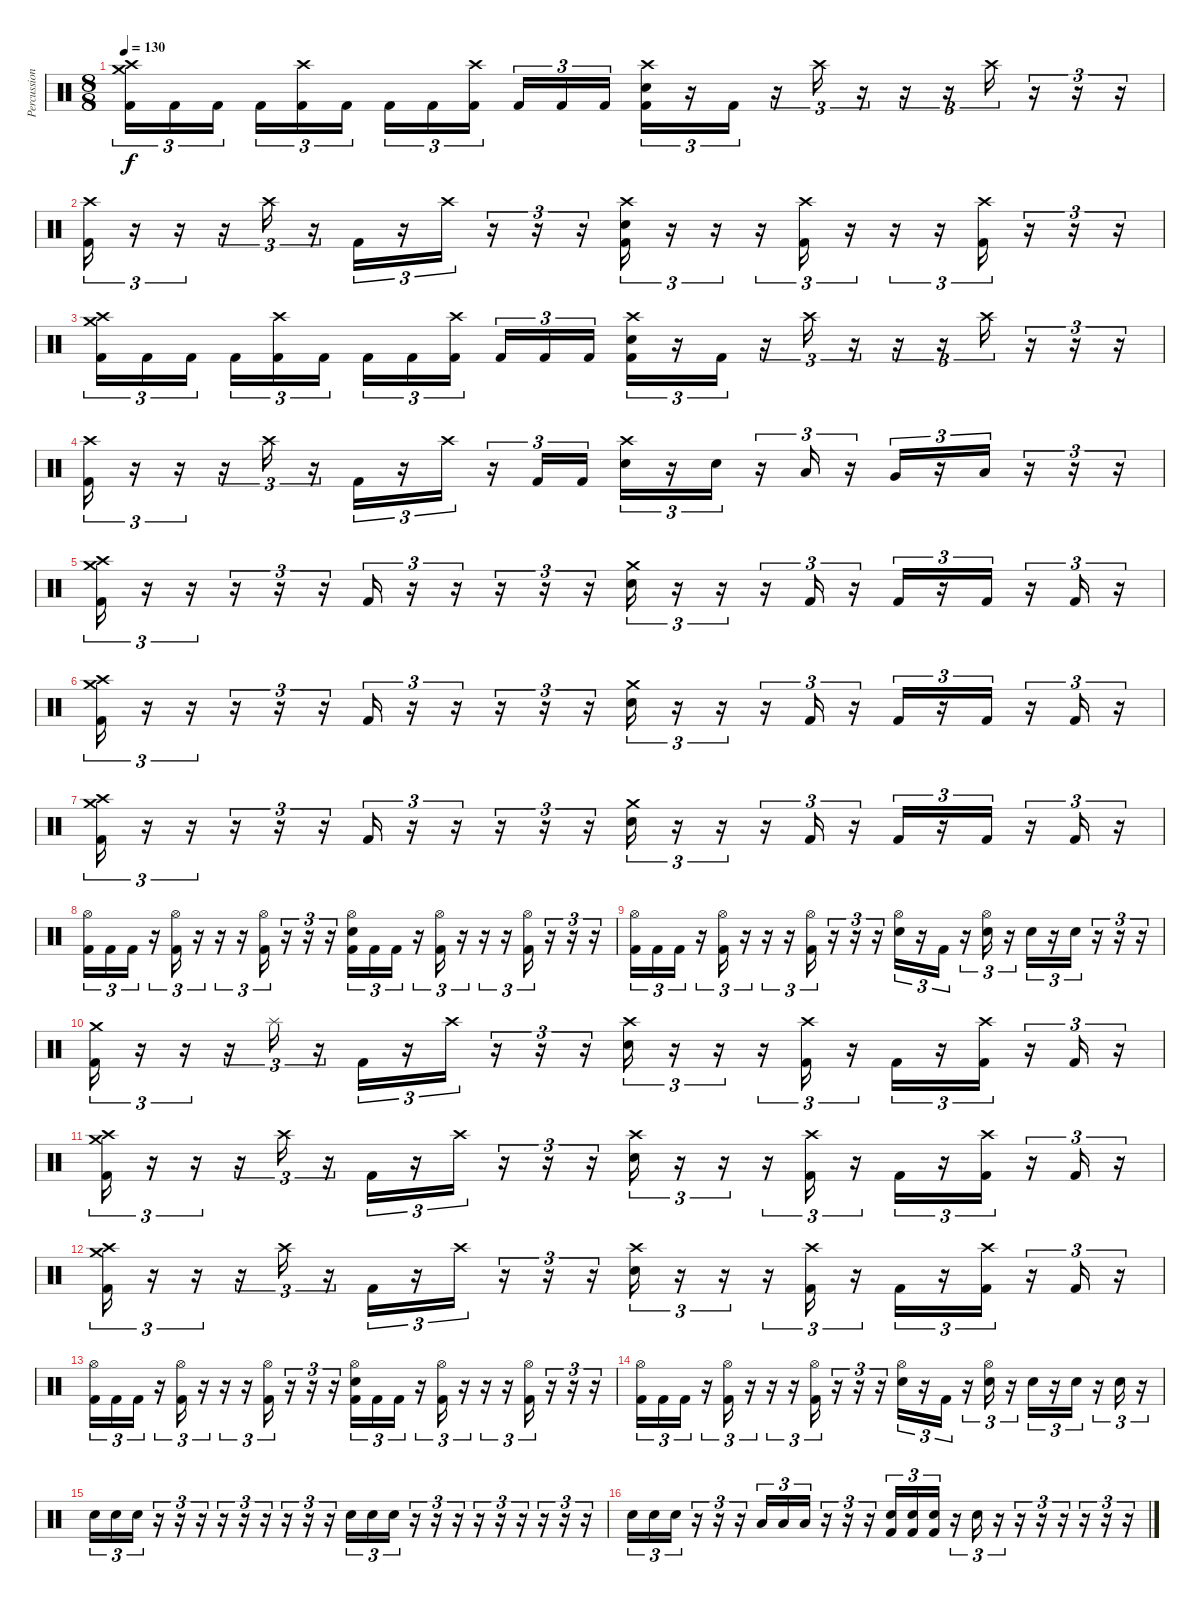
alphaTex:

\track ("Percussion" "Percussion") {instrument percussion}
\staff {score}
\articulation defaults
\ts (8 8)
\tempo 130
\clef neutral
\ks c
("Crash high (hit)" "Crash medium (hit)" "Kick (hit) 2").16{tu (3 2) dy f} "Kick (hit) 2".16{tu (3 2)} "Kick (hit) 2".16{tu (3 2)} "Kick (hit) 2".16{tu (3 2)} ("Crash high (hit)" "Kick (hit) 2").16{tu (3 2)} "Kick (hit) 2".16{tu (3 2)} "Kick (hit) 2".16{tu (3 2)} "Kick (hit) 2".16{tu (3 2)} ("Crash high (hit)" "Kick (hit) 2").16{tu (3 2)} "Kick (hit) 2".16{tu (3 2)} "Kick (hit) 2".16{tu (3 2)} "Kick (hit) 2".16{tu (3 2)} ("Crash high (hit)" "Snare (hit) 2" "Kick (hit) 2").16{tu (3 2)} r.16{tu (3 2)} "Kick (hit) 2".16{tu (3 2)} r.16{tu (3 2)} "Crash high (hit)".16{tu (3 2)} r.16{tu (3 2)} r.16{tu (3 2)} r.16{tu (3 2)} "Crash high (hit)".16{tu (3 2)} r.16{tu (3 2)} r.16{tu (3 2)} r.16{tu (3 2)} |
("Crash high (hit)" "Kick (hit) 2").16{tu (3 2)} r.16{tu (3 2)} r.16{tu (3 2)} r.16{tu (3 2)} "Crash high (hit)".16{tu (3 2)} r.16{tu (3 2)} "Kick (hit) 2".16{tu (3 2)} r.16{tu (3 2)} "Crash high (hit)".16{tu (3 2)} r.16{tu (3 2)} r.16{tu (3 2)} r.16{tu (3 2)} ("Crash high (hit)" "Snare (hit) 2" "Kick (hit) 2").16{tu (3 2)} r.16{tu (3 2)} r.16{tu (3 2)} r.16{tu (3 2)} ("Crash high (hit)" "Kick (hit) 2").16{tu (3 2)} r.16{tu (3 2)} r.16{tu (3 2)} r.16{tu (3 2)} ("Crash high (hit)" "Kick (hit) 2").16{tu (3 2)} r.16{tu (3 2)} r.16{tu (3 2)} r.16{tu (3 2)} |
("Crash high (hit)" "Crash medium (hit)" "Kick (hit) 2").16{tu (3 2)} "Kick (hit) 2".16{tu (3 2)} "Kick (hit) 2".16{tu (3 2)} "Kick (hit) 2".16{tu (3 2)} ("Crash high (hit)" "Kick (hit) 2").16{tu (3 2)} "Kick (hit) 2".16{tu (3 2)} "Kick (hit) 2".16{tu (3 2)} "Kick (hit) 2".16{tu (3 2)} ("Crash high (hit)" "Kick (hit) 2").16{tu (3 2)} "Kick (hit) 2".16{tu (3 2)} "Kick (hit) 2".16{tu (3 2)} "Kick (hit) 2".16{tu (3 2)} ("Crash high (hit)" "Snare (hit) 2" "Kick (hit) 2").16{tu (3 2)} r.16{tu (3 2)} "Kick (hit) 2".16{tu (3 2)} r.16{tu (3 2)} "Crash high (hit)".16{tu (3 2)} r.16{tu (3 2)} r.16{tu (3 2)} r.16{tu (3 2)} "Crash high (hit)".16{tu (3 2)} r.16{tu (3 2)} r.16{tu (3 2)} r.16{tu (3 2)} |
("Crash high (hit)" "Kick (hit) 2").16{tu (3 2)} r.16{tu (3 2)} r.16{tu (3 2)} r.16{tu (3 2)} "Crash high (hit)".16{tu (3 2)} r.16{tu (3 2)} "Kick (hit) 2".16{tu (3 2)} r.16{tu (3 2)} "Crash high (hit)".16{tu (3 2)} r.16{tu (3 2)} "Kick (hit) 2".16{tu (3 2)} "Kick (hit) 2".16{tu (3 2)} ("Crash high (hit)" "Snare (hit) 2").16{tu (3 2)} r.16{tu (3 2)} "Snare (hit) 2".16{tu (3 2)} r.16{tu (3 2)} "Low Tom (hit)".16{tu (3 2)} r.16{tu (3 2)} "Very Low Tom (hit)".16{tu (3 2)} r.16{tu (3 2)} "Low Floor Tom (hit)".16{tu (3 2)} r.16{tu (3 2)} r.16{tu (3 2)} r.16{tu (3 2)} |
("Crash high (hit)" "Crash medium (hit)" "Kick (hit) 2").16{tu (3 2)} r.16{tu (3 2)} r.16{tu (3 2)} r.16{tu (3 2)} r.16{tu (3 2)} r.16{tu (3 2)} "Kick (hit) 2".16{tu (3 2)} r.16{tu (3 2)} r.16{tu (3 2)} r.16{tu (3 2)} r.16{tu (3 2)} r.16{tu (3 2)} ("Crash medium (hit)" "Snare (hit) 2").16{tu (3 2)} r.16{tu (3 2)} r.16{tu (3 2)} r.16{tu (3 2)} "Kick (hit) 2".16{tu (3 2)} r.16{tu (3 2)} "Kick (hit) 2".16{tu (3 2)} r.16{tu (3 2)} "Kick (hit) 2".16{tu (3 2)} r.16{tu (3 2)} "Kick (hit) 2".16{tu (3 2)} r.16{tu (3 2)} |
("Crash high (hit)" "Crash medium (hit)" "Kick (hit) 2").16{tu (3 2)} r.16{tu (3 2)} r.16{tu (3 2)} r.16{tu (3 2)} r.16{tu (3 2)} r.16{tu (3 2)} "Kick (hit) 2".16{tu (3 2)} r.16{tu (3 2)} r.16{tu (3 2)} r.16{tu (3 2)} r.16{tu (3 2)} r.16{tu (3 2)} ("Crash medium (hit)" "Snare (hit) 2").16{tu (3 2)} r.16{tu (3 2)} r.16{tu (3 2)} r.16{tu (3 2)} "Kick (hit) 2".16{tu (3 2)} r.16{tu (3 2)} "Kick (hit) 2".16{tu (3 2)} r.16{tu (3 2)} "Kick (hit) 2".16{tu (3 2)} r.16{tu (3 2)} "Kick (hit) 2".16{tu (3 2)} r.16{tu (3 2)} |
("Crash high (hit)" "Crash medium (hit)" "Kick (hit) 2").16{tu (3 2)} r.16{tu (3 2)} r.16{tu (3 2)} r.16{tu (3 2)} r.16{tu (3 2)} r.16{tu (3 2)} "Kick (hit) 2".16{tu (3 2)} r.16{tu (3 2)} r.16{tu (3 2)} r.16{tu (3 2)} r.16{tu (3 2)} r.16{tu (3 2)} ("Crash medium (hit)" "Snare (hit) 2").16{tu (3 2)} r.16{tu (3 2)} r.16{tu (3 2)} r.16{tu (3 2)} "Kick (hit) 2".16{tu (3 2)} r.16{tu (3 2)} "Kick (hit) 2".16{tu (3 2)} r.16{tu (3 2)} "Kick (hit) 2".16{tu (3 2)} r.16{tu (3 2)} "Kick (hit) 2".16{tu (3 2)} r.16{tu (3 2)} |
("Hi-Hat (open)" "Kick (hit) 2").16{tu (3 2)} "Kick (hit) 2".16{tu (3 2)} "Kick (hit) 2".16{tu (3 2)} r.16{tu (3 2)} ("Hi-Hat (open)" "Kick (hit) 2").16{tu (3 2)} r.16{tu (3 2)} r.16{tu (3 2)} r.16{tu (3 2)} ("Hi-Hat (open)" "Kick (hit) 2").16{tu (3 2)} r.16{tu (3 2)} r.16{tu (3 2)} r.16{tu (3 2)} ("Hi-Hat (open)" "Snare (hit) 2" "Kick (hit) 2").16{tu (3 2)} "Kick (hit) 2".16{tu (3 2)} "Kick (hit) 2".16{tu (3 2)} r.16{tu (3 2)} ("Hi-Hat (open)" "Kick (hit) 2").16{tu (3 2)} r.16{tu (3 2)} r.16{tu (3 2)} r.16{tu (3 2)} ("Hi-Hat (open)" "Kick (hit) 2").16{tu (3 2)} r.16{tu (3 2)} r.16{tu (3 2)} r.16{tu (3 2)} |
("Hi-Hat (open)" "Kick (hit) 2").16{tu (3 2)} "Kick (hit) 2".16{tu (3 2)} "Kick (hit) 2".16{tu (3 2)} r.16{tu (3 2)} ("Hi-Hat (open)" "Kick (hit) 2").16{tu (3 2)} r.16{tu (3 2)} r.16{tu (3 2)} r.16{tu (3 2)} ("Hi-Hat (open)" "Kick (hit) 2").16{tu (3 2)} r.16{tu (3 2)} r.16{tu (3 2)} r.16{tu (3 2)} ("Hi-Hat (open)" "Snare (hit) 2").16{tu (3 2)} r.16{tu (3 2)} "Kick (hit) 2".16{tu (3 2)} r.16{tu (3 2)} ("Hi-Hat (open)" "Snare (hit) 2").16{tu (3 2)} r.16{tu (3 2)} "Snare (hit) 2".16{tu (3 2)} r.16{tu (3 2)} "Snare (hit) 2".16{tu (3 2)} r.16{tu (3 2)} r.16{tu (3 2)} r.16{tu (3 2)} |
("Crash medium (hit)" "Kick (hit) 2").16{tu (3 2)} r.16{tu (3 2)} r.16{tu (3 2)} r.16{tu (3 2)} "Splash (hit)".16{tu (3 2)} r.16{tu (3 2)} "Kick (hit) 2".16{tu (3 2)} r.16{tu (3 2)} "Crash high (hit)".16{tu (3 2)} r.16{tu (3 2)} r.16{tu (3 2)} r.16{tu (3 2)} ("Crash high (hit)" "Snare (hit) 2").16{tu (3 2)} r.16{tu (3 2)} r.16{tu (3 2)} r.16{tu (3 2)} ("Crash high (hit)" "Kick (hit) 2").16{tu (3 2)} r.16{tu (3 2)} "Kick (hit) 2".16{tu (3 2)} r.16{tu (3 2)} ("Crash high (hit)" "Kick (hit) 2").16{tu (3 2)} r.16{tu (3 2)} "Kick (hit) 2".16{tu (3 2)} r.16{tu (3 2)} |
("Crash high (hit)" "Crash medium (hit)" "Kick (hit) 2").16{tu (3 2)} r.16{tu (3 2)} r.16{tu (3 2)} r.16{tu (3 2)} "Crash high (hit)".16{tu (3 2)} r.16{tu (3 2)} "Kick (hit) 2".16{tu (3 2)} r.16{tu (3 2)} "Crash high (hit)".16{tu (3 2)} r.16{tu (3 2)} r.16{tu (3 2)} r.16{tu (3 2)} ("Crash high (hit)" "Snare (hit) 2").16{tu (3 2)} r.16{tu (3 2)} r.16{tu (3 2)} r.16{tu (3 2)} ("Crash high (hit)" "Kick (hit) 2").16{tu (3 2)} r.16{tu (3 2)} "Kick (hit) 2".16{tu (3 2)} r.16{tu (3 2)} ("Crash high (hit)" "Kick (hit) 2").16{tu (3 2)} r.16{tu (3 2)} "Kick (hit) 2".16{tu (3 2)} r.16{tu (3 2)} |
("Crash high (hit)" "Crash medium (hit)" "Kick (hit) 2").16{tu (3 2)} r.16{tu (3 2)} r.16{tu (3 2)} r.16{tu (3 2)} "Crash high (hit)".16{tu (3 2)} r.16{tu (3 2)} "Kick (hit) 2".16{tu (3 2)} r.16{tu (3 2)} "Crash high (hit)".16{tu (3 2)} r.16{tu (3 2)} r.16{tu (3 2)} r.16{tu (3 2)} ("Crash high (hit)" "Snare (hit) 2").16{tu (3 2)} r.16{tu (3 2)} r.16{tu (3 2)} r.16{tu (3 2)} ("Crash high (hit)" "Kick (hit) 2").16{tu (3 2)} r.16{tu (3 2)} "Kick (hit) 2".16{tu (3 2)} r.16{tu (3 2)} ("Crash high (hit)" "Kick (hit) 2").16{tu (3 2)} r.16{tu (3 2)} "Kick (hit) 2".16{tu (3 2)} r.16{tu (3 2)} |
("Hi-Hat (open)" "Kick (hit) 2").16{tu (3 2)} "Kick (hit) 2".16{tu (3 2)} "Kick (hit) 2".16{tu (3 2)} r.16{tu (3 2)} ("Hi-Hat (open)" "Kick (hit) 2").16{tu (3 2)} r.16{tu (3 2)} r.16{tu (3 2)} r.16{tu (3 2)} ("Hi-Hat (open)" "Kick (hit) 2").16{tu (3 2)} r.16{tu (3 2)} r.16{tu (3 2)} r.16{tu (3 2)} ("Hi-Hat (open)" "Snare (hit) 2" "Kick (hit) 2").16{tu (3 2)} "Kick (hit) 2".16{tu (3 2)} "Kick (hit) 2".16{tu (3 2)} r.16{tu (3 2)} ("Hi-Hat (open)" "Kick (hit) 2").16{tu (3 2)} r.16{tu (3 2)} r.16{tu (3 2)} r.16{tu (3 2)} ("Hi-Hat (open)" "Kick (hit) 2").16{tu (3 2)} r.16{tu (3 2)} r.16{tu (3 2)} r.16{tu (3 2)} |
("Hi-Hat (open)" "Kick (hit) 2").16{tu (3 2)} "Kick (hit) 2".16{tu (3 2)} "Kick (hit) 2".16{tu (3 2)} r.16{tu (3 2)} ("Hi-Hat (open)" "Kick (hit) 2").16{tu (3 2)} r.16{tu (3 2)} r.16{tu (3 2)} r.16{tu (3 2)} ("Hi-Hat (open)" "Kick (hit) 2").16{tu (3 2)} r.16{tu (3 2)} r.16{tu (3 2)} r.16{tu (3 2)} ("Hi-Hat (open)" "Snare (hit) 2").16{tu (3 2)} r.16{tu (3 2)} "Kick (hit) 2".16{tu (3 2)} r.16{tu (3 2)} ("Hi-Hat (open)" "Snare (hit) 2").16{tu (3 2)} r.16{tu (3 2)} "Snare (hit) 2".16{tu (3 2)} r.16{tu (3 2)} "Snare (hit) 2".16{tu (3 2)} r.16{tu (3 2)} "Snare (hit) 2".16{tu (3 2)} r.16{tu (3 2)} |
"Snare (hit) 2".16{tu (3 2)} "Snare (hit) 2".16{tu (3 2)} "Snare (hit) 2".16{tu (3 2)} r.16{tu (3 2)} r.16{tu (3 2)} r.16{tu (3 2)} r.16{tu (3 2)} r.16{tu (3 2)} r.16{tu (3 2)} r.16{tu (3 2)} r.16{tu (3 2)} r.16{tu (3 2)} "Snare (hit) 2".16{tu (3 2)} "Snare (hit) 2".16{tu (3 2)} "Snare (hit) 2".16{tu (3 2)} r.16{tu (3 2)} r.16{tu (3 2)} r.16{tu (3 2)} r.16{tu (3 2)} r.16{tu (3 2)} r.16{tu (3 2)} r.16{tu (3 2)} r.16{tu (3 2)} r.16{tu (3 2)} |
"Snare (hit) 2".16{tu (3 2)} "Snare (hit) 2".16{tu (3 2)} "Snare (hit) 2".16{tu (3 2)} r.16{tu (3 2)} r.16{tu (3 2)} r.16{tu (3 2)} "Low Tom (hit)".16{tu (3 2)} "Low Tom (hit)".16{tu (3 2)} "Low Tom (hit)".16{tu (3 2)} r.16{tu (3 2)} r.16{tu (3 2)} r.16{tu (3 2)} ("Snare (hit) 2" "Kick (hit) 2").16{tu (3 2)} ("Snare (hit) 2" "Kick (hit) 2").16{tu (3 2)} ("Snare (hit) 2" "Kick (hit) 2").16{tu (3 2)} r.16{tu (3 2)} "Snare (hit) 2".16{tu (3 2)} r.16{tu (3 2)} r.16{tu (3 2)} r.16{tu (3 2)} r.16{tu (3 2)} r.16{tu (3 2)} r.16{tu (3 2)} r.16{tu (3 2)}
